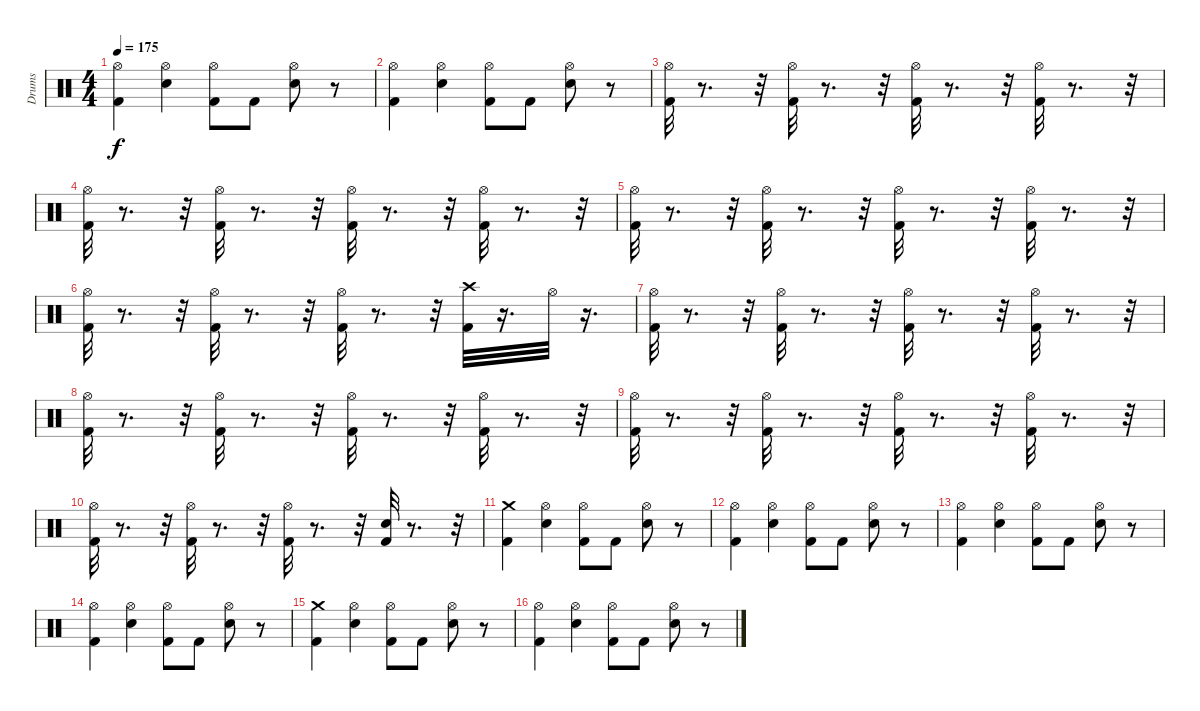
\track ("Drums" "Drums") {instrument percussion}
\staff {score}
\articulation defaults
\ts (4 4)
\tempo 175
\clef neutral
\ks c
("Hi-Hat (open)" "Kick (hit) 2").4{dy f} ("Hi-Hat (open)" "Electric Snare (hit)").4 ("Hi-Hat (open)" "Kick (hit) 2").8 "Kick (hit) 2".8 ("Hi-Hat (open)" "Electric Snare (hit)").8 r.8 |
("Hi-Hat (open)" "Kick (hit) 2").4 ("Hi-Hat (open)" "Electric Snare (hit)").4 ("Hi-Hat (open)" "Kick (hit) 2").8 "Kick (hit) 2".8 ("Hi-Hat (open)" "Electric Snare (hit)").8 r.8 |
("Hi-Hat (open)" "Kick (hit) 2").32 r.8{d} r.32 ("Hi-Hat (open)" "Kick (hit) 2").32 r.8{d} r.32 ("Hi-Hat (open)" "Kick (hit) 2").32 r.8{d} r.32 ("Hi-Hat (open)" "Kick (hit) 2").32 r.8{d} r.32 |
("Hi-Hat (open)" "Kick (hit) 2").32 r.8{d} r.32 ("Hi-Hat (open)" "Kick (hit) 2").32 r.8{d} r.32 ("Hi-Hat (open)" "Kick (hit) 2").32 r.8{d} r.32 ("Hi-Hat (open)" "Kick (hit) 2").32 r.8{d} r.32 |
("Hi-Hat (open)" "Kick (hit) 2").32 r.8{d} r.32 ("Hi-Hat (open)" "Kick (hit) 2").32 r.8{d} r.32 ("Hi-Hat (open)" "Kick (hit) 2").32 r.8{d} r.32 ("Hi-Hat (open)" "Kick (hit) 2").32 r.8{d} r.32 |
("Hi-Hat (open)" "Kick (hit) 2").32 r.8{d} r.32 ("Hi-Hat (open)" "Kick (hit) 2").32 r.8{d} r.32 ("Hi-Hat (open)" "Kick (hit) 2").32 r.8{d} r.32 ("Crash high (hit)" "Kick (hit) 2").32 r.16{d} "Hi-Hat (open)".32 r.16{d} |
("Hi-Hat (open)" "Kick (hit) 2").32 r.8{d} r.32 ("Hi-Hat (open)" "Kick (hit) 2").32 r.8{d} r.32 ("Hi-Hat (open)" "Kick (hit) 2").32 r.8{d} r.32 ("Hi-Hat (open)" "Kick (hit) 2").32 r.8{d} r.32 |
("Hi-Hat (open)" "Kick (hit) 2").32 r.8{d} r.32 ("Hi-Hat (open)" "Kick (hit) 2").32 r.8{d} r.32 ("Hi-Hat (open)" "Kick (hit) 2").32 r.8{d} r.32 ("Hi-Hat (open)" "Kick (hit) 2").32 r.8{d} r.32 |
("Hi-Hat (open)" "Kick (hit) 2").32 r.8{d} r.32 ("Hi-Hat (open)" "Kick (hit) 2").32 r.8{d} r.32 ("Hi-Hat (open)" "Kick (hit) 2").32 r.8{d} r.32 ("Hi-Hat (open)" "Kick (hit) 2").32 r.8{d} r.32 |
("Hi-Hat (open)" "Kick (hit) 2").32 r.8{d} r.32 ("Hi-Hat (open)" "Kick (hit) 2").32 r.8{d} r.32 ("Hi-Hat (open)" "Kick (hit) 2").32 r.8{d} r.32 ("Electric Snare (hit)" "Kick (hit) 2").32 r.8{d} r.32 |
("Crash medium (hit)" "Kick (hit) 2").4 ("Hi-Hat (open)" "Electric Snare (hit)").4 ("Hi-Hat (open)" "Kick (hit) 2").8 "Kick (hit) 2".8 ("Hi-Hat (open)" "Electric Snare (hit)").8 r.8 |
("Hi-Hat (open)" "Kick (hit) 2").4 ("Hi-Hat (open)" "Electric Snare (hit)").4 ("Hi-Hat (open)" "Kick (hit) 2").8 "Kick (hit) 2".8 ("Hi-Hat (open)" "Electric Snare (hit)").8 r.8 |
("Hi-Hat (open)" "Kick (hit) 2").4 ("Hi-Hat (open)" "Electric Snare (hit)").4 ("Hi-Hat (open)" "Kick (hit) 2").8 "Kick (hit) 2".8 ("Hi-Hat (open)" "Electric Snare (hit)").8 r.8 |
("Hi-Hat (open)" "Kick (hit) 2").4 ("Hi-Hat (open)" "Electric Snare (hit)").4 ("Hi-Hat (open)" "Kick (hit) 2").8 "Kick (hit) 2".8 ("Hi-Hat (open)" "Electric Snare (hit)").8 r.8 |
("Crash medium (hit)" "Kick (hit) 2").4 ("Hi-Hat (open)" "Electric Snare (hit)").4 ("Hi-Hat (open)" "Kick (hit) 2").8 "Kick (hit) 2".8 ("Hi-Hat (open)" "Electric Snare (hit)").8 r.8 |
("Hi-Hat (open)" "Kick (hit) 2").4 ("Hi-Hat (open)" "Electric Snare (hit)").4 ("Hi-Hat (open)" "Kick (hit) 2").8 "Kick (hit) 2".8 ("Hi-Hat (open)" "Electric Snare (hit)").8 r.8
